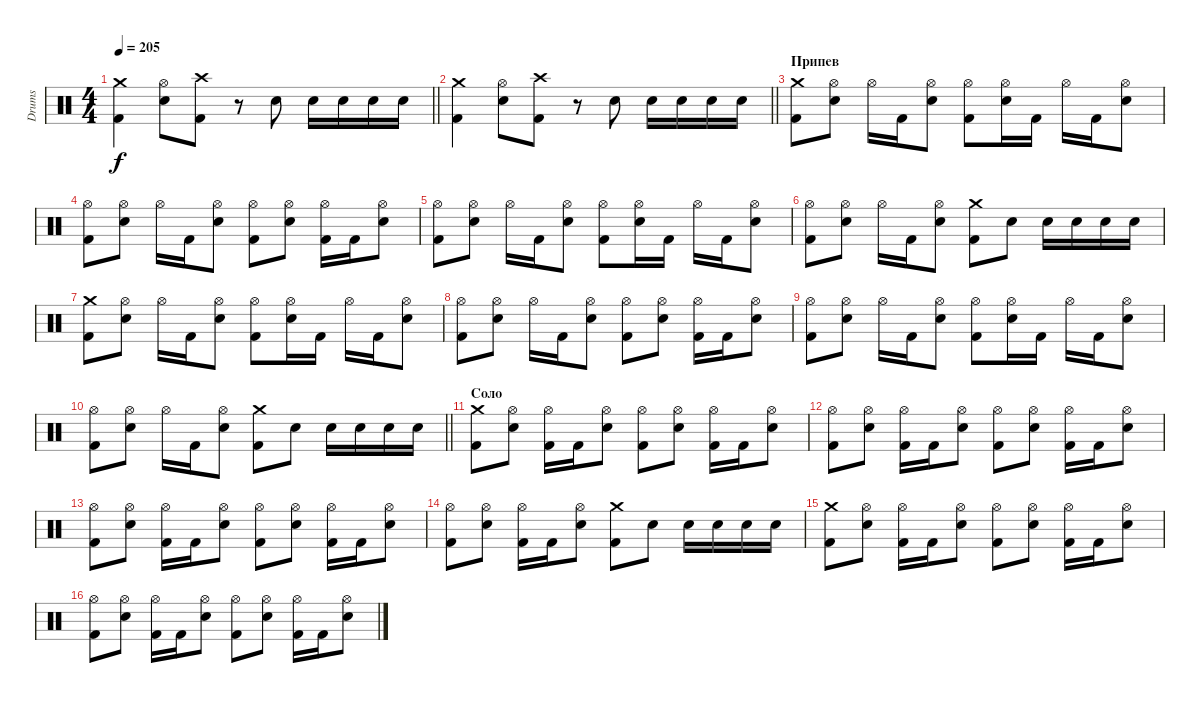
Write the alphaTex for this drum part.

\track ("Drums" "Drums") {instrument percussion}
\staff {score}
\articulation defaults
\ts (4 4)
\tempo 205
\clef neutral
\barLineRight lightlight
\ks c
("Kick (hit) 2" "Crash medium (hit)").4{dy f} ("Electric Snare (hit)" "Hi-Hat (open)").8 ("Kick (hit) 2" "Crash high (hit)").8 r.8 "Electric Snare (hit)".8 "Electric Snare (hit)".16 "Electric Snare (hit)".16 "Electric Snare (hit)".16 "Electric Snare (hit)".16 |
\barLineRight lightlight
("Kick (hit) 2" "Crash medium (hit)").4 ("Electric Snare (hit)" "Hi-Hat (open)").8 ("Kick (hit) 2" "Crash high (hit)").8 r.8 "Electric Snare (hit)".8 "Electric Snare (hit)".16 "Electric Snare (hit)".16 "Electric Snare (hit)".16 "Electric Snare (hit)".16 |
\section ("" "Припев")
("Kick (hit) 2" "Crash medium (hit)").8 ("Electric Snare (hit)" "Hi-Hat (open)").8 "Hi-Hat (open)".16 "Kick (hit) 2".16 ("Electric Snare (hit)" "Hi-Hat (open)").8 ("Kick (hit) 2" "Hi-Hat (open)").8 ("Electric Snare (hit)" "Hi-Hat (open)").16 "Kick (hit) 2".16 "Hi-Hat (open)".16 "Kick (hit) 2".16 ("Electric Snare (hit)" "Hi-Hat (open)").8 |
("Kick (hit) 2" "Hi-Hat (open)").8 ("Electric Snare (hit)" "Hi-Hat (open)").8 "Hi-Hat (open)".16 "Kick (hit) 2".16 ("Electric Snare (hit)" "Hi-Hat (open)").8 ("Kick (hit) 2" "Hi-Hat (open)").8 ("Electric Snare (hit)" "Hi-Hat (open)").8 ("Kick (hit) 2" "Hi-Hat (open)").16 "Kick (hit) 2".16 ("Electric Snare (hit)" "Hi-Hat (open)").8 |
("Kick (hit) 2" "Hi-Hat (open)").8 ("Electric Snare (hit)" "Hi-Hat (open)").8 "Hi-Hat (open)".16 "Kick (hit) 2".16 ("Electric Snare (hit)" "Hi-Hat (open)").8 ("Kick (hit) 2" "Hi-Hat (open)").8 ("Electric Snare (hit)" "Hi-Hat (open)").16 "Kick (hit) 2".16 "Hi-Hat (open)".16 "Kick (hit) 2".16 ("Electric Snare (hit)" "Hi-Hat (open)").8 |
("Kick (hit) 2" "Hi-Hat (open)").8 ("Electric Snare (hit)" "Hi-Hat (open)").8 "Hi-Hat (open)".16 "Kick (hit) 2".16 ("Electric Snare (hit)" "Hi-Hat (open)").8 ("Kick (hit) 2" "Crash medium (hit)").8 "Electric Snare (hit)".8 "Electric Snare (hit)".16 "Electric Snare (hit)".16 "Electric Snare (hit)".16 "Electric Snare (hit)".16 |
("Kick (hit) 2" "Crash medium (hit)").8 ("Electric Snare (hit)" "Hi-Hat (open)").8 "Hi-Hat (open)".16 "Kick (hit) 2".16 ("Electric Snare (hit)" "Hi-Hat (open)").8 ("Kick (hit) 2" "Hi-Hat (open)").8 ("Electric Snare (hit)" "Hi-Hat (open)").16 "Kick (hit) 2".16 "Hi-Hat (open)".16 "Kick (hit) 2".16 ("Electric Snare (hit)" "Hi-Hat (open)").8 |
("Kick (hit) 2" "Hi-Hat (open)").8 ("Electric Snare (hit)" "Hi-Hat (open)").8 "Hi-Hat (open)".16 "Kick (hit) 2".16 ("Electric Snare (hit)" "Hi-Hat (open)").8 ("Kick (hit) 2" "Hi-Hat (open)").8 ("Electric Snare (hit)" "Hi-Hat (open)").8 ("Kick (hit) 2" "Hi-Hat (open)").16 "Kick (hit) 2".16 ("Electric Snare (hit)" "Hi-Hat (open)").8 |
("Kick (hit) 2" "Hi-Hat (open)").8 ("Electric Snare (hit)" "Hi-Hat (open)").8 "Hi-Hat (open)".16 "Kick (hit) 2".16 ("Electric Snare (hit)" "Hi-Hat (open)").8 ("Kick (hit) 2" "Hi-Hat (open)").8 ("Electric Snare (hit)" "Hi-Hat (open)").16 "Kick (hit) 2".16 "Hi-Hat (open)".16 "Kick (hit) 2".16 ("Electric Snare (hit)" "Hi-Hat (open)").8 |
\barLineRight lightlight
("Kick (hit) 2" "Hi-Hat (open)").8 ("Electric Snare (hit)" "Hi-Hat (open)").8 "Hi-Hat (open)".16 "Kick (hit) 2".16 ("Electric Snare (hit)" "Hi-Hat (open)").8 ("Kick (hit) 2" "Crash medium (hit)").8 "Electric Snare (hit)".8 "Electric Snare (hit)".16 "Electric Snare (hit)".16 "Electric Snare (hit)".16 "Electric Snare (hit)".16 |
\section ("" "Соло")
("Kick (hit) 2" "Crash medium (hit)").8 ("Electric Snare (hit)" "Hi-Hat (open)").8 ("Kick (hit) 2" "Hi-Hat (open)").16 "Kick (hit) 2".16 ("Electric Snare (hit)" "Hi-Hat (open)").8 ("Kick (hit) 2" "Hi-Hat (open)").8 ("Electric Snare (hit)" "Hi-Hat (open)").8 ("Kick (hit) 2" "Hi-Hat (open)").16 "Kick (hit) 2".16 ("Electric Snare (hit)" "Hi-Hat (open)").8 |
("Kick (hit) 2" "Hi-Hat (open)").8 ("Electric Snare (hit)" "Hi-Hat (open)").8 ("Kick (hit) 2" "Hi-Hat (open)").16 "Kick (hit) 2".16 ("Electric Snare (hit)" "Hi-Hat (open)").8 ("Kick (hit) 2" "Hi-Hat (open)").8 ("Electric Snare (hit)" "Hi-Hat (open)").8 ("Kick (hit) 2" "Hi-Hat (open)").16 "Kick (hit) 2".16 ("Electric Snare (hit)" "Hi-Hat (open)").8 |
("Kick (hit) 2" "Hi-Hat (open)").8 ("Electric Snare (hit)" "Hi-Hat (open)").8 ("Kick (hit) 2" "Hi-Hat (open)").16 "Kick (hit) 2".16 ("Electric Snare (hit)" "Hi-Hat (open)").8 ("Kick (hit) 2" "Hi-Hat (open)").8 ("Electric Snare (hit)" "Hi-Hat (open)").8 ("Kick (hit) 2" "Hi-Hat (open)").16 "Kick (hit) 2".16 ("Electric Snare (hit)" "Hi-Hat (open)").8 |
("Kick (hit) 2" "Hi-Hat (open)").8 ("Electric Snare (hit)" "Hi-Hat (open)").8 ("Kick (hit) 2" "Hi-Hat (open)").16 "Kick (hit) 2".16 ("Electric Snare (hit)" "Hi-Hat (open)").8 ("Kick (hit) 2" "Crash medium (hit)").8 "Electric Snare (hit)".8 "Electric Snare (hit)".16 "Electric Snare (hit)".16 "Electric Snare (hit)".16 "Electric Snare (hit)".16 |
("Kick (hit) 2" "Crash medium (hit)").8 ("Electric Snare (hit)" "Hi-Hat (open)").8 ("Kick (hit) 2" "Hi-Hat (open)").16 "Kick (hit) 2".16 ("Electric Snare (hit)" "Hi-Hat (open)").8 ("Kick (hit) 2" "Hi-Hat (open)").8 ("Electric Snare (hit)" "Hi-Hat (open)").8 ("Kick (hit) 2" "Hi-Hat (open)").16 "Kick (hit) 2".16 ("Electric Snare (hit)" "Hi-Hat (open)").8 |
("Kick (hit) 2" "Hi-Hat (open)").8 ("Electric Snare (hit)" "Hi-Hat (open)").8 ("Kick (hit) 2" "Hi-Hat (open)").16 "Kick (hit) 2".16 ("Electric Snare (hit)" "Hi-Hat (open)").8 ("Kick (hit) 2" "Hi-Hat (open)").8 ("Electric Snare (hit)" "Hi-Hat (open)").8 ("Kick (hit) 2" "Hi-Hat (open)").16 "Kick (hit) 2".16 ("Electric Snare (hit)" "Hi-Hat (open)").8
